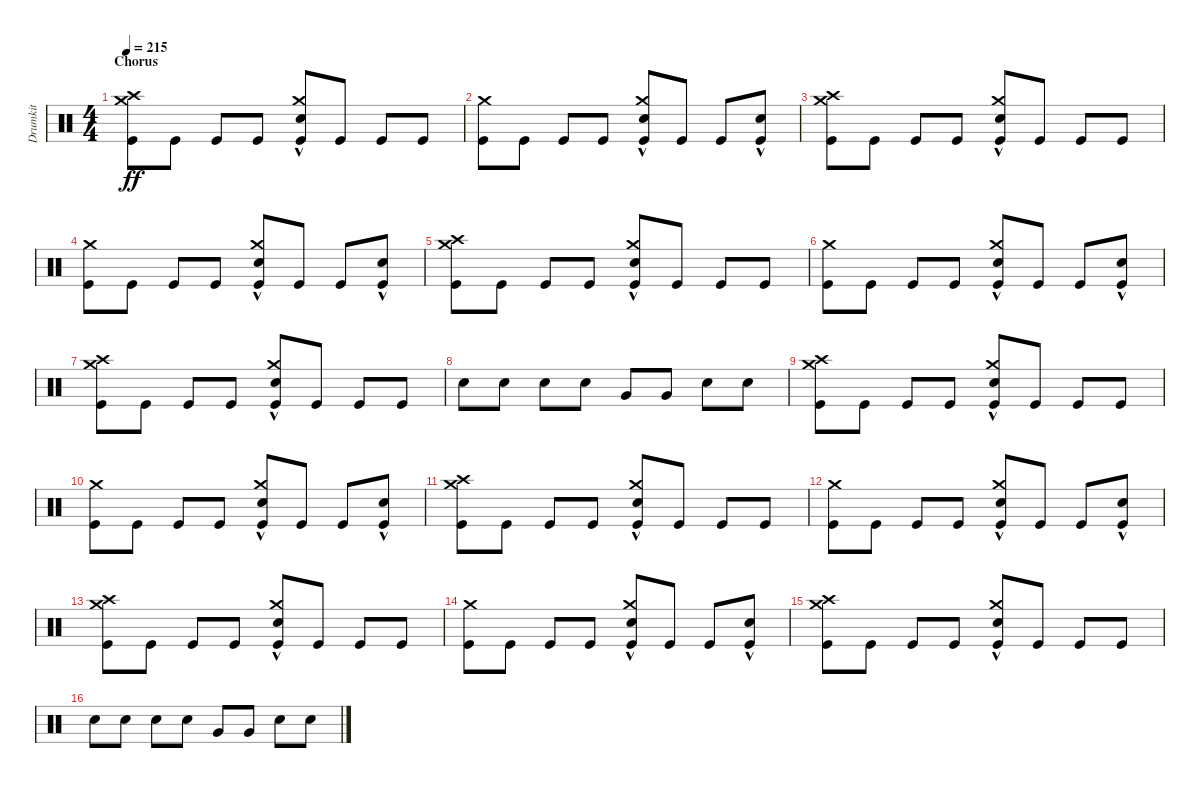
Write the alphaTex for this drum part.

\track ("Drumkit" "Drumkit") {instrument percussion}
\staff {score}
\articulation defaults
\ts (4 4)
\section ("" "Chorus")
\tempo 215
\clef neutral
\ks c
("Kick (hit)" "Crash medium (hit)" "Crash high (hit)").8{dy ff} "Kick (hit)".8 "Kick (hit)".8 "Kick (hit)".8 ("Kick (hit)" "Crash medium (hit)" "Snare (hit) 2"{hac}).8 "Kick (hit)".8 "Kick (hit)".8 "Kick (hit)".8 |
("Kick (hit)" "Crash medium (hit)").8 "Kick (hit)".8 "Kick (hit)".8 "Kick (hit)".8 ("Kick (hit)" "Crash medium (hit)" "Snare (hit) 2"{hac}).8 "Kick (hit)".8 "Kick (hit)".8 ("Kick (hit)" "Snare (hit) 2"{hac}).8 |
("Kick (hit)" "Crash medium (hit)" "Crash high (hit)").8 "Kick (hit)".8 "Kick (hit)".8 "Kick (hit)".8 ("Kick (hit)" "Crash medium (hit)" "Snare (hit) 2"{hac}).8 "Kick (hit)".8 "Kick (hit)".8 "Kick (hit)".8 |
("Kick (hit)" "Crash medium (hit)").8 "Kick (hit)".8 "Kick (hit)".8 "Kick (hit)".8 ("Kick (hit)" "Crash medium (hit)" "Snare (hit) 2"{hac}).8 "Kick (hit)".8 "Kick (hit)".8 ("Kick (hit)" "Snare (hit) 2"{hac}).8 |
("Kick (hit)" "Crash medium (hit)" "Crash high (hit)").8 "Kick (hit)".8 "Kick (hit)".8 "Kick (hit)".8 ("Kick (hit)" "Crash medium (hit)" "Snare (hit) 2"{hac}).8 "Kick (hit)".8 "Kick (hit)".8 "Kick (hit)".8 |
("Kick (hit)" "Crash medium (hit)").8 "Kick (hit)".8 "Kick (hit)".8 "Kick (hit)".8 ("Kick (hit)" "Crash medium (hit)" "Snare (hit) 2"{hac}).8 "Kick (hit)".8 "Kick (hit)".8 ("Kick (hit)" "Snare (hit) 2"{hac}).8 |
("Kick (hit)" "Crash medium (hit)" "Crash high (hit)").8 "Kick (hit)".8 "Kick (hit)".8 "Kick (hit)".8 ("Kick (hit)" "Crash medium (hit)" "Snare (hit) 2"{hac}).8 "Kick (hit)".8 "Kick (hit)".8 "Kick (hit)".8 |
"Snare (hit) 2".8 "Snare (hit) 2".8 "Snare (hit) 2".8 "Snare (hit) 2".8 "Very Low Tom (hit)".8 "Very Low Tom (hit)".8 "Snare (hit) 2".8 "Snare (hit) 2".8 |
("Kick (hit)" "Crash medium (hit)" "Crash high (hit)").8 "Kick (hit)".8 "Kick (hit)".8 "Kick (hit)".8 ("Kick (hit)" "Crash medium (hit)" "Snare (hit) 2"{hac}).8 "Kick (hit)".8 "Kick (hit)".8 "Kick (hit)".8 |
("Kick (hit)" "Crash medium (hit)").8 "Kick (hit)".8 "Kick (hit)".8 "Kick (hit)".8 ("Kick (hit)" "Crash medium (hit)" "Snare (hit) 2"{hac}).8 "Kick (hit)".8 "Kick (hit)".8 ("Kick (hit)" "Snare (hit) 2"{hac}).8 |
("Kick (hit)" "Crash medium (hit)" "Crash high (hit)").8 "Kick (hit)".8 "Kick (hit)".8 "Kick (hit)".8 ("Kick (hit)" "Crash medium (hit)" "Snare (hit) 2"{hac}).8 "Kick (hit)".8 "Kick (hit)".8 "Kick (hit)".8 |
("Kick (hit)" "Crash medium (hit)").8 "Kick (hit)".8 "Kick (hit)".8 "Kick (hit)".8 ("Kick (hit)" "Crash medium (hit)" "Snare (hit) 2"{hac}).8 "Kick (hit)".8 "Kick (hit)".8 ("Kick (hit)" "Snare (hit) 2"{hac}).8 |
("Kick (hit)" "Crash medium (hit)" "Crash high (hit)").8 "Kick (hit)".8 "Kick (hit)".8 "Kick (hit)".8 ("Kick (hit)" "Crash medium (hit)" "Snare (hit) 2"{hac}).8 "Kick (hit)".8 "Kick (hit)".8 "Kick (hit)".8 |
("Kick (hit)" "Crash medium (hit)").8 "Kick (hit)".8 "Kick (hit)".8 "Kick (hit)".8 ("Kick (hit)" "Crash medium (hit)" "Snare (hit) 2"{hac}).8 "Kick (hit)".8 "Kick (hit)".8 ("Kick (hit)" "Snare (hit) 2"{hac}).8 |
("Kick (hit)" "Crash medium (hit)" "Crash high (hit)").8 "Kick (hit)".8 "Kick (hit)".8 "Kick (hit)".8 ("Kick (hit)" "Crash medium (hit)" "Snare (hit) 2"{hac}).8 "Kick (hit)".8 "Kick (hit)".8 "Kick (hit)".8 |
"Snare (hit) 2".8 "Snare (hit) 2".8 "Snare (hit) 2".8 "Snare (hit) 2".8 "Very Low Tom (hit)".8 "Very Low Tom (hit)".8 "Snare (hit) 2".8 "Snare (hit) 2".8
